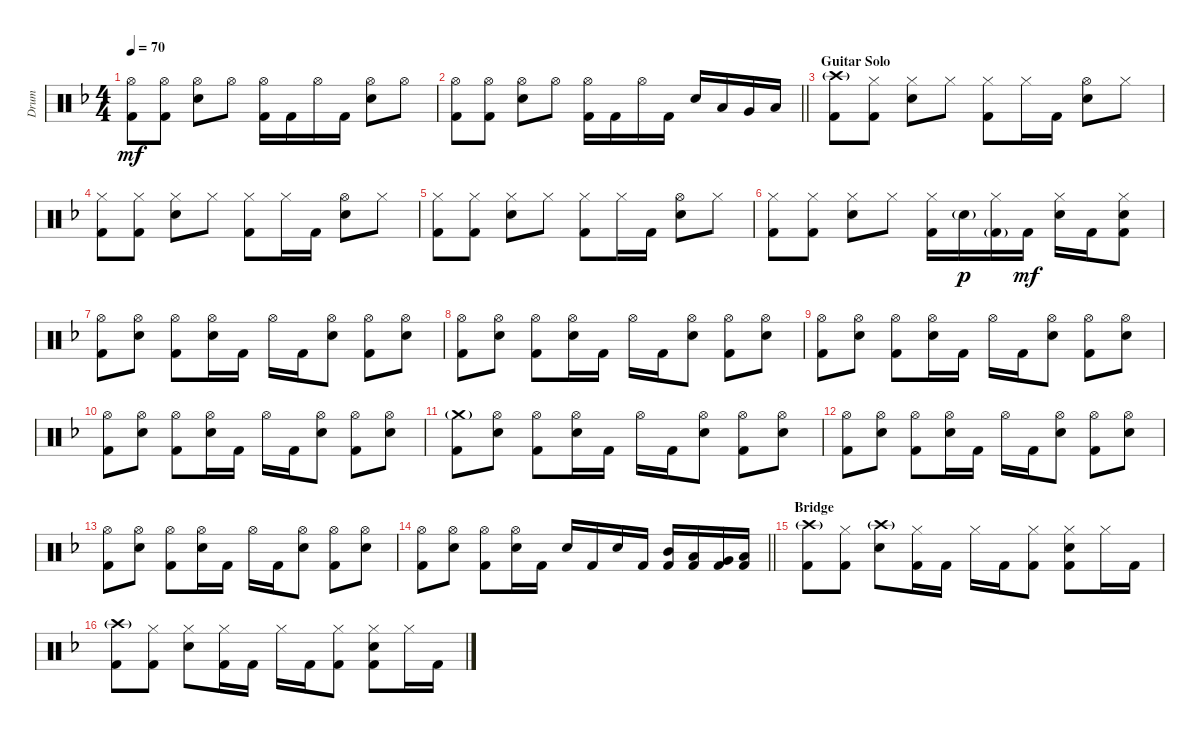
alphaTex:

\track ("Drum" "Drum") {instrument percussion}
\staff {score}
\articulation defaults
\ts (4 4)
\tempo 70
\clef neutral
\ks f
("Hi-Hat (open)" "Kick (hit) 2").8{dy mf} ("Hi-Hat (open)" "Kick (hit) 2").8 ("Hi-Hat (open)" "Electric Snare (hit)").8 "Hi-Hat (open)".8 ("Hi-Hat (open)" "Kick (hit) 2").16 "Kick (hit) 2".16 "Hi-Hat (open)".16 "Kick (hit) 2".16 ("Hi-Hat (open)" "Electric Snare (hit)").8 "Hi-Hat (open)".8 |
\barLineRight lightlight
("Hi-Hat (open)" "Kick (hit) 2").8 ("Hi-Hat (open)" "Kick (hit) 2").8 ("Hi-Hat (open)" "Electric Snare (hit)").8 "Hi-Hat (open)".8 ("Hi-Hat (open)" "Kick (hit) 2").16 "Kick (hit) 2".16 "Hi-Hat (open)".16 "Kick (hit) 2".16 "Electric Snare (hit)".16 "Low Tom (hit)".16 "Very Low Tom (hit)".16 "Low Floor Tom (hit)".16 |
\section ("" "Guitar Solo")
("Crash high (hit)"{g} "Kick (hit) 2").8 ("Hi-Hat (closed)" "Kick (hit) 2").8 ("Hi-Hat (closed)" "Electric Snare (hit)").8 "Hi-Hat (closed)".8 ("Hi-Hat (closed)" "Kick (hit) 2").8 "Hi-Hat (closed)".16 "Kick (hit) 2".16 ("Hi-Hat (open)" "Electric Snare (hit)").8 "Hi-Hat (closed)".8 |
("Hi-Hat (closed)" "Kick (hit) 2").8 ("Hi-Hat (closed)" "Kick (hit) 2").8 ("Hi-Hat (closed)" "Electric Snare (hit)").8 "Hi-Hat (closed)".8 ("Hi-Hat (closed)" "Kick (hit) 2").8 "Hi-Hat (closed)".16 "Kick (hit) 2".16 ("Hi-Hat (open)" "Electric Snare (hit)").8 "Hi-Hat (closed)".8 |
("Hi-Hat (closed)" "Kick (hit) 2").8 ("Hi-Hat (closed)" "Kick (hit) 2").8 ("Hi-Hat (closed)" "Electric Snare (hit)").8 "Hi-Hat (closed)".8 ("Hi-Hat (closed)" "Kick (hit) 2").8 "Hi-Hat (closed)".16 "Kick (hit) 2".16 ("Hi-Hat (open)" "Electric Snare (hit)").8 "Hi-Hat (closed)".8 |
("Hi-Hat (closed)" "Kick (hit) 2").8 ("Hi-Hat (closed)" "Kick (hit) 2").8 ("Hi-Hat (closed)" "Electric Snare (hit)").8 "Hi-Hat (closed)".8 ("Hi-Hat (closed)" "Kick (hit) 2").16 "Electric Snare (hit)"{g}.16{dy p} ("Hi-Hat (closed)" "Kick (hit) 2"{g}).16 "Kick (hit) 2".16{dy mf} ("Hi-Hat (closed)" "Electric Snare (hit)").16 "Kick (hit) 2".16 ("Hi-Hat (closed)" "Electric Snare (hit)" "Kick (hit) 2").8 |
("Hi-Hat (open)" "Kick (hit) 2").8 ("Hi-Hat (open)" "Electric Snare (hit)").8 ("Hi-Hat (open)" "Kick (hit) 2").8 ("Hi-Hat (open)" "Electric Snare (hit)").16 "Kick (hit) 2".16 "Hi-Hat (open)".16 "Kick (hit) 2".16 ("Hi-Hat (open)" "Electric Snare (hit)").8 ("Hi-Hat (open)" "Kick (hit) 2").8 ("Hi-Hat (open)" "Electric Snare (hit)").8 |
("Hi-Hat (open)" "Kick (hit) 2").8 ("Hi-Hat (open)" "Electric Snare (hit)").8 ("Hi-Hat (open)" "Kick (hit) 2").8 ("Hi-Hat (open)" "Electric Snare (hit)").16 "Kick (hit) 2".16 "Hi-Hat (open)".16 "Kick (hit) 2".16 ("Hi-Hat (open)" "Electric Snare (hit)").8 ("Hi-Hat (open)" "Kick (hit) 2").8 ("Hi-Hat (open)" "Electric Snare (hit)").8 |
("Hi-Hat (open)" "Kick (hit) 2").8 ("Hi-Hat (open)" "Electric Snare (hit)").8 ("Hi-Hat (open)" "Kick (hit) 2").8 ("Hi-Hat (open)" "Electric Snare (hit)").16 "Kick (hit) 2".16 "Hi-Hat (open)".16 "Kick (hit) 2".16 ("Hi-Hat (open)" "Electric Snare (hit)").8 ("Hi-Hat (open)" "Kick (hit) 2").8 ("Hi-Hat (open)" "Electric Snare (hit)").8 |
("Hi-Hat (open)" "Kick (hit) 2").8 ("Hi-Hat (open)" "Electric Snare (hit)").8 ("Hi-Hat (open)" "Kick (hit) 2").8 ("Hi-Hat (open)" "Electric Snare (hit)").16 "Kick (hit) 2".16 "Hi-Hat (open)".16 "Kick (hit) 2".16 ("Hi-Hat (open)" "Electric Snare (hit)").8 ("Hi-Hat (open)" "Kick (hit) 2").8 ("Hi-Hat (open)" "Electric Snare (hit)").8 |
("Crash medium (hit)"{g} "Kick (hit) 2").8 ("Hi-Hat (open)" "Electric Snare (hit)").8 ("Hi-Hat (open)" "Kick (hit) 2").8 ("Hi-Hat (open)" "Electric Snare (hit)").16 "Kick (hit) 2".16 "Hi-Hat (open)".16 "Kick (hit) 2".16 ("Hi-Hat (open)" "Electric Snare (hit)").8 ("Hi-Hat (open)" "Kick (hit) 2").8 ("Hi-Hat (open)" "Electric Snare (hit)").8 |
("Hi-Hat (open)" "Kick (hit) 2").8 ("Hi-Hat (open)" "Electric Snare (hit)").8 ("Hi-Hat (open)" "Kick (hit) 2").8 ("Hi-Hat (open)" "Electric Snare (hit)").16 "Kick (hit) 2".16 "Hi-Hat (open)".16 "Kick (hit) 2".16 ("Hi-Hat (open)" "Electric Snare (hit)").8 ("Hi-Hat (open)" "Kick (hit) 2").8 ("Hi-Hat (open)" "Electric Snare (hit)").8 |
("Hi-Hat (open)" "Kick (hit) 2").8 ("Hi-Hat (open)" "Electric Snare (hit)").8 ("Hi-Hat (open)" "Kick (hit) 2").8 ("Hi-Hat (open)" "Electric Snare (hit)").16 "Kick (hit) 2".16 "Hi-Hat (open)".16 "Kick (hit) 2".16 ("Hi-Hat (open)" "Electric Snare (hit)").8 ("Hi-Hat (open)" "Kick (hit) 2").8 ("Hi-Hat (open)" "Electric Snare (hit)").8 |
\barLineRight lightlight
("Hi-Hat (open)" "Kick (hit) 2").8 ("Hi-Hat (open)" "Electric Snare (hit)").8 ("Hi-Hat (open)" "Kick (hit) 2").8 ("Hi-Hat (open)" "Electric Snare (hit)").16 "Kick (hit) 2".16 "Electric Snare (hit)".16 "Kick (hit) 2".16 "Electric Snare (hit)".16 "Kick (hit) 2".16 ("Mid Tom (hit)" "Kick (hit) 2").16 ("Low Tom (hit)" "Kick (hit) 2").16 ("Very Low Tom (hit)" "Kick (hit) 2").16 ("Low Floor Tom (hit)" "Kick (hit) 2").16 |
\section ("" "Bridge")
("Crash high (hit)"{g} "Kick (hit) 2").8 ("Hi-Hat (closed)" "Kick (hit) 2").8 ("Crash high (hit)"{g} "Electric Snare (hit)").8 ("Hi-Hat (closed)" "Kick (hit) 2").16 "Kick (hit) 2".16 "Hi-Hat (closed)".16 "Kick (hit) 2".16 ("Hi-Hat (closed)" "Kick (hit) 2").8 ("Hi-Hat (closed)" "Electric Snare (hit)" "Kick (hit) 2").8 "Hi-Hat (closed)".16 "Kick (hit) 2".16 |
("Crash high (hit)"{g} "Kick (hit) 2").8 ("Hi-Hat (closed)" "Kick (hit) 2").8 ("Hi-Hat (closed)" "Electric Snare (hit)").8 ("Hi-Hat (closed)" "Kick (hit) 2").16 "Kick (hit) 2".16 "Hi-Hat (closed)".16 "Kick (hit) 2".16 ("Hi-Hat (closed)" "Kick (hit) 2").8 ("Hi-Hat (closed)" "Electric Snare (hit)" "Kick (hit) 2").8 "Hi-Hat (closed)".16 "Kick (hit) 2".16
